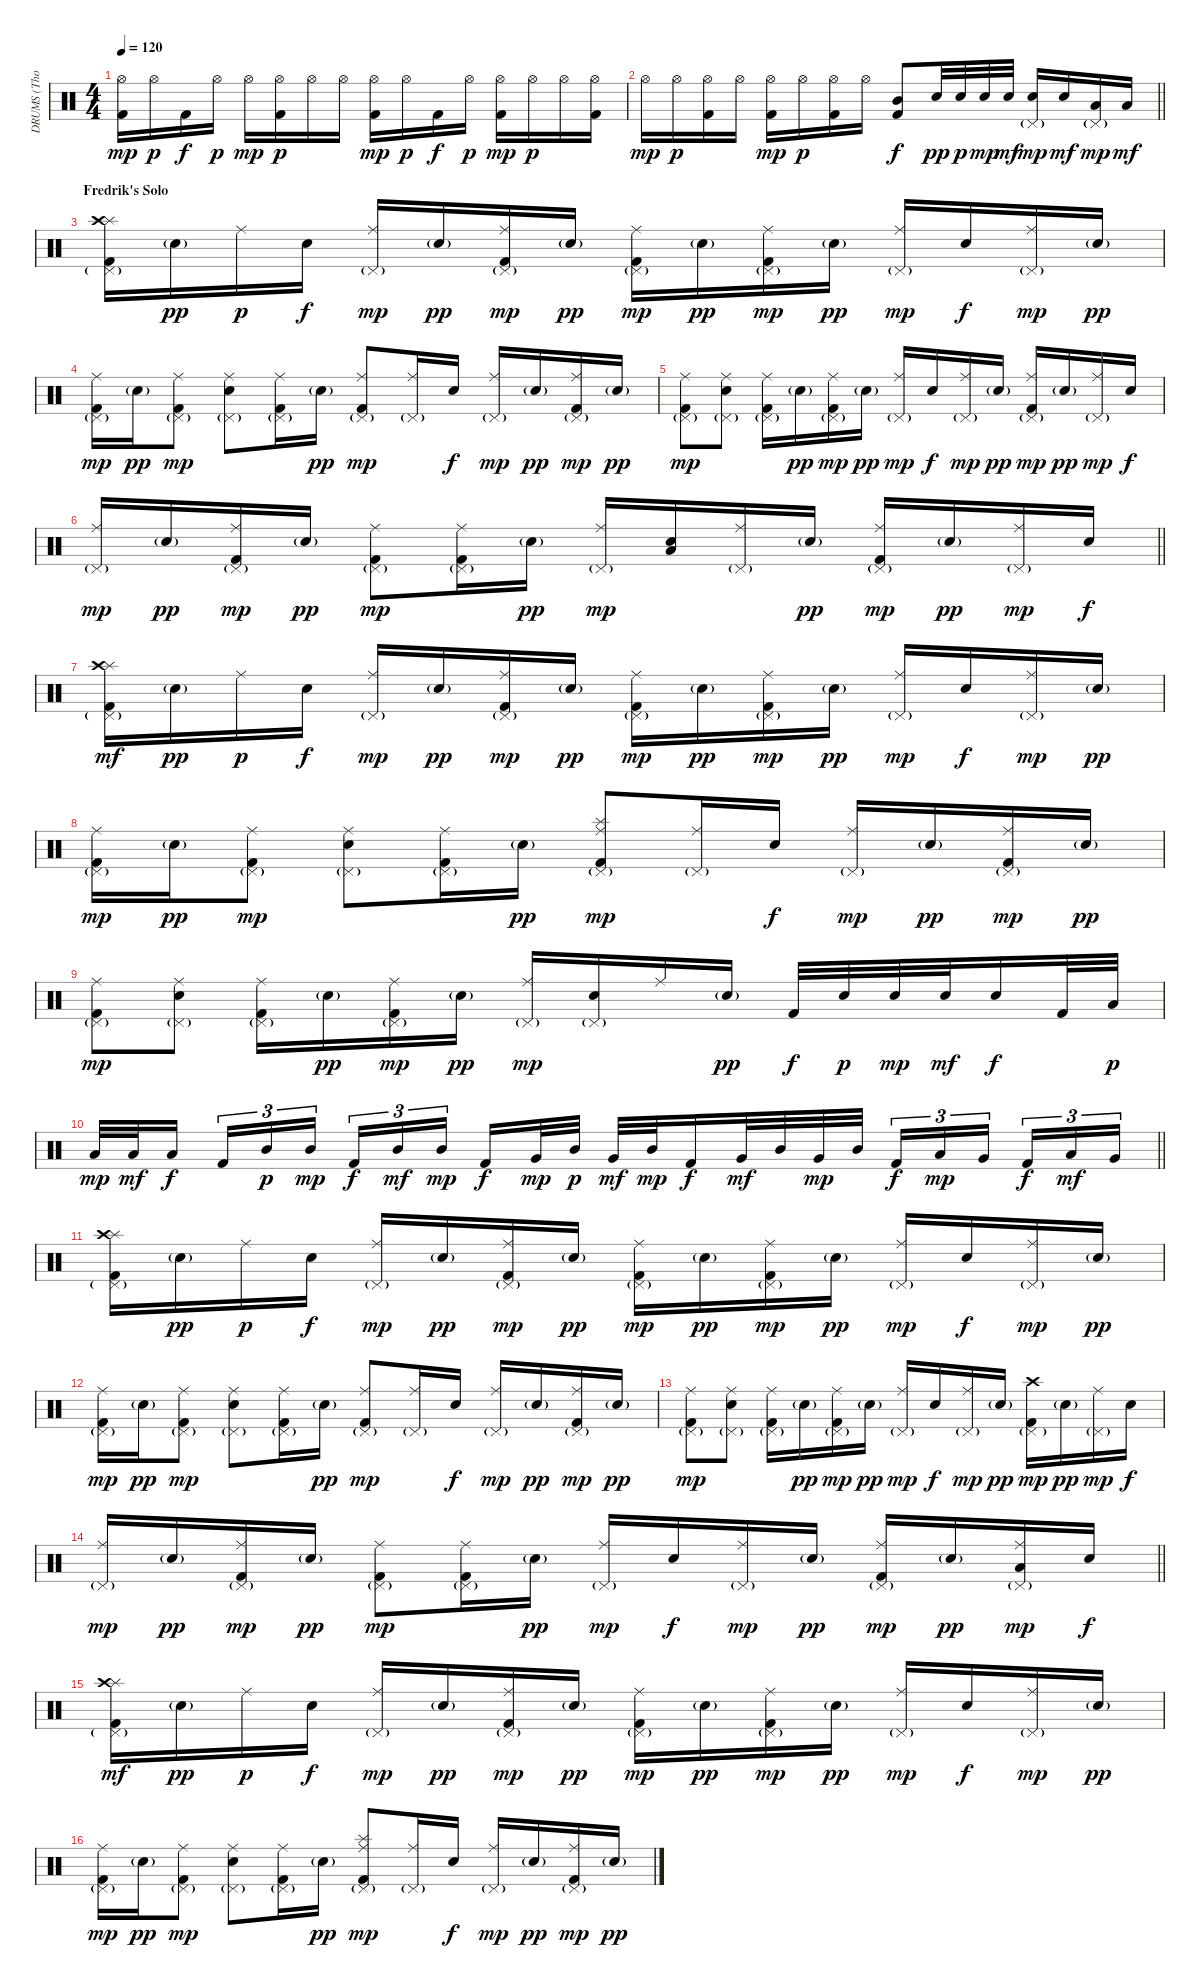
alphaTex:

\track ("DRUMS (Thomas Haake)" "DRUMS (Tho") {instrument percussion}
\staff {score}
\articulation defaults
\ts (4 4)
\tempo 120
\clef neutral
\ks c
("Hi-Hat (open)" "Kick (hit) 2").16{dy mp} "Hi-Hat (open)".16{dy p} "Kick (hit) 2".16{dy f} "Hi-Hat (open)".16{dy p} "Hi-Hat (open)".16{dy mp} ("Hi-Hat (open)" "Kick (hit) 2").16{dy p} "Hi-Hat (open)".16 "Hi-Hat (open)".16 ("Hi-Hat (open)" "Kick (hit) 2").16{dy mp} "Hi-Hat (open)".16{dy p} "Kick (hit) 2".16{dy f} "Hi-Hat (open)".16{dy p} ("Hi-Hat (open)" "Kick (hit) 2").16{dy mp} "Hi-Hat (open)".16{dy p} "Hi-Hat (open)".16 ("Hi-Hat (open)" "Kick (hit) 2").16 |
\barLineRight lightlight "Hi-Hat (open)".16{dy mp} "Hi-Hat (open)".16{dy p}
("Hi-Hat (open)" "Kick (hit) 2").16 "Hi-Hat (open)".16 ("Hi-Hat (open)" "Kick (hit) 2").16{dy mp} "Hi-Hat (open)".16{dy p} ("Hi-Hat (open)" "Kick (hit) 2").16 "Hi-Hat (open)".16 ("Mid Tom (hit)" "Kick (hit) 2").8{dy f} "Electric Snare (hit)".32{dy pp} "Electric Snare (hit)".32{dy p} "Electric Snare (hit)".32{dy mp} "Electric Snare (hit)".32{dy mf} ("Pedal Hi-Hat (hit)"{g} "Electric Snare (hit)").16{dy mp} "Electric Snare (hit)".16{dy mf} ("Pedal Hi-Hat (hit)"{g} "Low Tom (hit)").16{dy mp} "Low Tom (hit)".16{dy mf} |
\section ("" "Fredrik's Solo")
("Splash (hit)" "Pedal Hi-Hat (hit)"{g} "Crash high (hit)" "Kick (hit) 2").16 "Electric Snare (hit)"{g}.16{dy pp} "Ride (middle)".16{dy p} "Electric Snare (hit)".16{dy f} ("Ride (middle)" "Pedal Hi-Hat (hit)"{g}).16{dy mp} "Electric Snare (hit)"{g}.16{dy pp} ("Ride (middle)" "Pedal Hi-Hat (hit)"{g} "Kick (hit) 2").16{dy mp} "Electric Snare (hit)"{g}.16{dy pp} ("Ride (middle)" "Pedal Hi-Hat (hit)"{g} "Kick (hit) 2").16{dy mp} "Electric Snare (hit)"{g}.16{dy pp} ("Ride (middle)" "Pedal Hi-Hat (hit)"{g} "Kick (hit) 2").16{dy mp} "Electric Snare (hit)"{g}.16{dy pp} ("Ride (middle)" "Pedal Hi-Hat (hit)"{g}).16{dy mp} "Electric Snare (hit)".16{dy f} ("Ride (middle)" "Pedal Hi-Hat (hit)"{g}).16{dy mp} "Electric Snare (hit)"{g}.16{dy pp} |
("Ride (middle)" "Pedal Hi-Hat (hit)"{g} "Kick (hit) 2").16{dy mp} "Electric Snare (hit)"{g}.16{dy pp} ("Ride (middle)" "Pedal Hi-Hat (hit)"{g} "Kick (hit) 2").8{dy mp} ("Ride (middle)" "Pedal Hi-Hat (hit)"{g} "Electric Snare (hit)").8 ("Ride (middle)" "Pedal Hi-Hat (hit)"{g} "Kick (hit) 2").16 "Electric Snare (hit)"{g}.16{dy pp} ("Ride (middle)" "Pedal Hi-Hat (hit)"{g} "Kick (hit) 2").8{dy mp} ("Ride (middle)" "Pedal Hi-Hat (hit)"{g}).16 "Electric Snare (hit)".16{dy f} ("Ride (middle)" "Pedal Hi-Hat (hit)"{g}).16{dy mp} "Electric Snare (hit)"{g}.16{dy pp} ("Ride (middle)" "Pedal Hi-Hat (hit)"{g} "Kick (hit) 2").16{dy mp} "Electric Snare (hit)"{g}.16{dy pp} |
("Ride (middle)" "Pedal Hi-Hat (hit)"{g} "Kick (hit) 2").8{dy mp} ("Ride (middle)" "Pedal Hi-Hat (hit)"{g} "Electric Snare (hit)").8 ("Ride (middle)" "Pedal Hi-Hat (hit)"{g} "Kick (hit) 2").16 "Electric Snare (hit)"{g}.16{dy pp} ("Ride (middle)" "Pedal Hi-Hat (hit)"{g} "Kick (hit) 2").16{dy mp} "Electric Snare (hit)"{g}.16{dy pp} ("Ride (middle)" "Pedal Hi-Hat (hit)"{g}).16{dy mp} "Electric Snare (hit)".16{dy f} ("Ride (middle)" "Pedal Hi-Hat (hit)"{g}).16{dy mp} "Electric Snare (hit)"{g}.16{dy pp} ("Ride (middle)" "Pedal Hi-Hat (hit)"{g} "Kick (hit) 2").16{dy mp} "Electric Snare (hit)"{g}.16{dy pp} ("Ride (middle)" "Pedal Hi-Hat (hit)"{g}).16{dy mp} "Electric Snare (hit)".16{dy f} |
\barLineRight lightlight
("Ride (middle)" "Pedal Hi-Hat (hit)"{g}).16{dy mp} "Electric Snare (hit)"{g}.16{dy pp} ("Ride (middle)" "Pedal Hi-Hat (hit)"{g} "Kick (hit) 2").16{dy mp} "Electric Snare (hit)"{g}.16{dy pp} ("Ride (middle)" "Pedal Hi-Hat (hit)"{g} "Kick (hit) 2").8{dy mp} ("Ride (middle)" "Pedal Hi-Hat (hit)"{g} "Kick (hit) 2").16 "Electric Snare (hit)"{g}.16{dy pp} ("Ride (middle)" "Pedal Hi-Hat (hit)"{g}).16{dy mp} ("Low Tom (hit)" "Electric Snare (hit)").16 ("Ride (middle)" "Pedal Hi-Hat (hit)"{g}).16 "Electric Snare (hit)"{g}.16{dy pp} ("Ride (middle)" "Pedal Hi-Hat (hit)"{g} "Kick (hit) 2").16{dy mp} "Electric Snare (hit)"{g}.16{dy pp} ("Ride (middle)" "Pedal Hi-Hat (hit)"{g}).16{dy mp} "Electric Snare (hit)".16{dy f} |
("Splash (hit)" "Pedal Hi-Hat (hit)"{g} "Crash high (hit)" "Kick (hit) 2").16{dy mf} "Electric Snare (hit)"{g}.16{dy pp} "Ride (middle)".16{dy p} "Electric Snare (hit)".16{dy f} ("Ride (middle)" "Pedal Hi-Hat (hit)"{g}).16{dy mp} "Electric Snare (hit)"{g}.16{dy pp} ("Ride (middle)" "Pedal Hi-Hat (hit)"{g} "Kick (hit) 2").16{dy mp} "Electric Snare (hit)"{g}.16{dy pp} ("Ride (middle)" "Pedal Hi-Hat (hit)"{g} "Kick (hit) 2").16{dy mp} "Electric Snare (hit)"{g}.16{dy pp} ("Ride (middle)" "Pedal Hi-Hat (hit)"{g} "Kick (hit) 2").16{dy mp} "Electric Snare (hit)"{g}.16{dy pp} ("Ride (middle)" "Pedal Hi-Hat (hit)"{g}).16{dy mp} "Electric Snare (hit)".16{dy f} ("Ride (middle)" "Pedal Hi-Hat (hit)"{g}).16{dy mp} "Electric Snare (hit)"{g}.16{dy pp} |
("Ride (middle)" "Pedal Hi-Hat (hit)"{g} "Kick (hit) 2").16{dy mp} "Electric Snare (hit)"{g}.16{dy pp} ("Ride (middle)" "Pedal Hi-Hat (hit)"{g} "Kick (hit) 2").8{dy mp} ("Ride (middle)" "Pedal Hi-Hat (hit)"{g} "Electric Snare (hit)").8 ("Ride (middle)" "Pedal Hi-Hat (hit)"{g} "Kick (hit) 2").16 "Electric Snare (hit)"{g}.16{dy pp} ("Ride (middle)" "Pedal Hi-Hat (hit)"{g} "Splash (hit)" "Kick (hit) 2").8{dy mp} ("Ride (middle)" "Pedal Hi-Hat (hit)"{g}).16 "Electric Snare (hit)".16{dy f} ("Ride (middle)" "Pedal Hi-Hat (hit)"{g}).16{dy mp} "Electric Snare (hit)"{g}.16{dy pp} ("Ride (middle)" "Pedal Hi-Hat (hit)"{g} "Kick (hit) 2").16{dy mp} "Electric Snare (hit)"{g}.16{dy pp} |
("Ride (middle)" "Pedal Hi-Hat (hit)"{g} "Kick (hit) 2").8{dy mp} ("Ride (middle)" "Pedal Hi-Hat (hit)"{g} "Electric Snare (hit)").8 ("Ride (middle)" "Pedal Hi-Hat (hit)"{g} "Kick (hit) 2").16 "Electric Snare (hit)"{g}.16{dy pp} ("Ride (middle)" "Pedal Hi-Hat (hit)"{g} "Kick (hit) 2").16{dy mp} "Electric Snare (hit)"{g}.16{dy pp} ("Ride (middle)" "Pedal Hi-Hat (hit)"{g}).16{dy mp} ("Pedal Hi-Hat (hit)"{g} "Electric Snare (hit)").16 "Ride (middle)".16 "Electric Snare (hit)"{g}.16{dy pp} "Kick (hit) 2".32{dy f} "Electric Snare (hit)".32{dy p} "Electric Snare (hit)".32{dy mp} "Electric Snare (hit)".32{dy mf} "Electric Snare (hit)".16{dy f} "Kick (hit) 2".32 "Low Tom (hit)".32{dy p} |
\barLineRight lightlight "Low Tom (hit)".32{dy mp} "Low Tom (hit)".32{dy mf} "Low Tom (hit)".16{dy f beam splitsecondary} "Kick (hit) 2".16{tu (3 2)} "Mid Tom (hit)".16{tu (3 2) dy p} "Mid Tom (hit)".16{tu (3 2) dy mp} "Kick (hit) 2".16{tu (3 2) dy f} "Mid Tom (hit)".16{tu (3 2) dy mf} "Mid Tom (hit)".16{tu (3 2) dy mp beam splitsecondary} "Kick (hit) 2".16{dy f} "Very Low Tom (hit)".32{dy mp} "Mid Tom (hit)".32{dy p} "Very Low Tom (hit)".32{dy mf} "Mid Tom (hit)".32{dy mp} "Kick (hit) 2".16{dy f} "Very Low Tom (hit)".32{dy mf} "Mid Tom (hit)".32 "Very Low Tom (hit)".32{dy mp} "Mid Tom (hit)".32 "Kick (hit) 2".16{tu (3 2) dy f} "Low Floor Tom (hit)".16{tu (3 2) dy mp} "Very Low Tom (hit)".16{tu (3 2) beam splitsecondary} "Kick (hit) 2".16{tu (3 2) dy f} "Low Floor Tom (hit)".16{tu (3 2) dy mf} "Very Low Tom (hit)".16{tu (3 2)}
|
("Splash (hit)" "Pedal Hi-Hat (hit)"{g} "Crash high (hit)" "Kick (hit) 2").16 "Electric Snare (hit)"{g}.16{dy pp} "Ride (middle)".16{dy p} "Electric Snare (hit)".16{dy f} ("Ride (middle)" "Pedal Hi-Hat (hit)"{g}).16{dy mp} "Electric Snare (hit)"{g}.16{dy pp} ("Ride (middle)" "Pedal Hi-Hat (hit)"{g} "Kick (hit) 2").16{dy mp} "Electric Snare (hit)"{g}.16{dy pp} ("Ride (middle)" "Pedal Hi-Hat (hit)"{g} "Kick (hit) 2").16{dy mp} "Electric Snare (hit)"{g}.16{dy pp} ("Ride (middle)" "Pedal Hi-Hat (hit)"{g} "Kick (hit) 2").16{dy mp} "Electric Snare (hit)"{g}.16{dy pp} ("Ride (middle)" "Pedal Hi-Hat (hit)"{g}).16{dy mp} "Electric Snare (hit)".16{dy f} ("Ride (middle)" "Pedal Hi-Hat (hit)"{g}).16{dy mp} "Electric Snare (hit)"{g}.16{dy pp} |
("Ride (middle)" "Pedal Hi-Hat (hit)"{g} "Kick (hit) 2").16{dy mp} "Electric Snare (hit)"{g}.16{dy pp} ("Ride (middle)" "Pedal Hi-Hat (hit)"{g} "Kick (hit) 2").8{dy mp} ("Ride (middle)" "Pedal Hi-Hat (hit)"{g} "Electric Snare (hit)").8 ("Ride (middle)" "Pedal Hi-Hat (hit)"{g} "Kick (hit) 2").16 "Electric Snare (hit)"{g}.16{dy pp} ("Ride (middle)" "Pedal Hi-Hat (hit)"{g} "Kick (hit) 2").8{dy mp} ("Ride (middle)" "Pedal Hi-Hat (hit)"{g}).16 "Electric Snare (hit)".16{dy f} ("Ride (middle)" "Pedal Hi-Hat (hit)"{g}).16{dy mp} "Electric Snare (hit)"{g}.16{dy pp} ("Ride (middle)" "Pedal Hi-Hat (hit)"{g} "Kick (hit) 2").16{dy mp} "Electric Snare (hit)"{g}.16{dy pp} |
("Ride (middle)" "Pedal Hi-Hat (hit)"{g} "Kick (hit) 2").8{dy mp} ("Ride (middle)" "Pedal Hi-Hat (hit)"{g} "Electric Snare (hit)").8 ("Ride (middle)" "Pedal Hi-Hat (hit)"{g} "Kick (hit) 2").16 "Electric Snare (hit)"{g}.16{dy pp} ("Ride (middle)" "Pedal Hi-Hat (hit)"{g} "Kick (hit) 2").16{dy mp} "Electric Snare (hit)"{g}.16{dy pp} ("Ride (middle)" "Pedal Hi-Hat (hit)"{g}).16{dy mp} "Electric Snare (hit)".16{dy f} ("Ride (middle)" "Pedal Hi-Hat (hit)"{g}).16{dy mp} "Electric Snare (hit)"{g}.16{dy pp} ("Crash high (hit)" "Pedal Hi-Hat (hit)"{g} "Kick (hit) 2").16{dy mp} "Electric Snare (hit)"{g}.16{dy pp} ("Ride (middle)" "Pedal Hi-Hat (hit)"{g}).16{dy mp} "Electric Snare (hit)".16{dy f} |
\barLineRight lightlight
("Ride (middle)" "Pedal Hi-Hat (hit)"{g}).16{dy mp} "Electric Snare (hit)"{g}.16{dy pp} ("Ride (middle)" "Pedal Hi-Hat (hit)"{g} "Kick (hit) 2").16{dy mp} "Electric Snare (hit)"{g}.16{dy pp} ("Ride (middle)" "Pedal Hi-Hat (hit)"{g} "Kick (hit) 2").8{dy mp} ("Ride (middle)" "Pedal Hi-Hat (hit)"{g} "Kick (hit) 2").16 "Electric Snare (hit)"{g}.16{dy pp} ("Ride (middle)" "Pedal Hi-Hat (hit)"{g}).16{dy mp} "Electric Snare (hit)".16{dy f} ("Ride (middle)" "Pedal Hi-Hat (hit)"{g}).16{dy mp} "Electric Snare (hit)"{g}.16{dy pp} ("Ride (middle)" "Pedal Hi-Hat (hit)"{g} "Kick (hit) 2").16{dy mp} "Electric Snare (hit)"{g}.16{dy pp} ("Ride (middle)" "Pedal Hi-Hat (hit)"{g} "Low Tom (hit)").16{dy mp} "Electric Snare (hit)".16{dy f} |
("Splash (hit)" "Pedal Hi-Hat (hit)"{g} "Crash high (hit)" "Kick (hit) 2").16{dy mf} "Electric Snare (hit)"{g}.16{dy pp} "Ride (middle)".16{dy p} "Electric Snare (hit)".16{dy f} ("Ride (middle)" "Pedal Hi-Hat (hit)"{g}).16{dy mp} "Electric Snare (hit)"{g}.16{dy pp} ("Ride (middle)" "Pedal Hi-Hat (hit)"{g} "Kick (hit) 2").16{dy mp} "Electric Snare (hit)"{g}.16{dy pp} ("Ride (middle)" "Pedal Hi-Hat (hit)"{g} "Kick (hit) 2").16{dy mp} "Electric Snare (hit)"{g}.16{dy pp} ("Ride (middle)" "Pedal Hi-Hat (hit)"{g} "Kick (hit) 2").16{dy mp} "Electric Snare (hit)"{g}.16{dy pp} ("Ride (middle)" "Pedal Hi-Hat (hit)"{g}).16{dy mp} "Electric Snare (hit)".16{dy f} ("Ride (middle)" "Pedal Hi-Hat (hit)"{g}).16{dy mp} "Electric Snare (hit)"{g}.16{dy pp} |
("Ride (middle)" "Pedal Hi-Hat (hit)"{g} "Kick (hit) 2").16{dy mp} "Electric Snare (hit)"{g}.16{dy pp} ("Ride (middle)" "Pedal Hi-Hat (hit)"{g} "Kick (hit) 2").8{dy mp} ("Ride (middle)" "Pedal Hi-Hat (hit)"{g} "Electric Snare (hit)").8 ("Ride (middle)" "Pedal Hi-Hat (hit)"{g} "Kick (hit) 2").16 "Electric Snare (hit)"{g}.16{dy pp} ("Ride (middle)" "Pedal Hi-Hat (hit)"{g} "Splash (hit)" "Kick (hit) 2").8{dy mp} ("Ride (middle)" "Pedal Hi-Hat (hit)"{g}).16 "Electric Snare (hit)".16{dy f} ("Ride (middle)" "Pedal Hi-Hat (hit)"{g}).16{dy mp} "Electric Snare (hit)"{g}.16{dy pp} ("Ride (middle)" "Pedal Hi-Hat (hit)"{g} "Kick (hit) 2").16{dy mp} "Electric Snare (hit)"{g}.16{dy pp}
